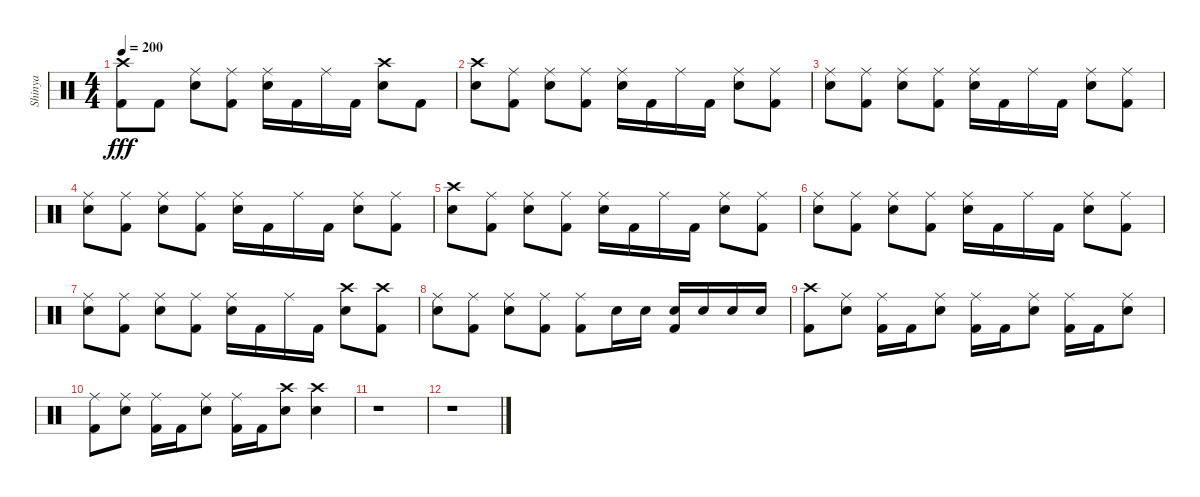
\track ("Shinya" "Shinya") {instrument percussion}
\staff {score}
\articulation defaults
\ts (4 4)
\tempo 200
\clef neutral
\ks c
("Kick (hit) 2" "Crash high (hit)").8{dy fff} "Kick (hit) 2".8 ("Snare (hit) 2" "Ride (middle)").8 ("Ride (middle)" "Kick (hit) 2").8 ("Snare (hit) 2" "Ride (middle)").16 "Kick (hit) 2".16 "Ride (middle)".16 "Kick (hit) 2".16 ("Snare (hit) 2" "Crash high (hit)").8 "Kick (hit) 2".8 |
("Snare (hit) 2" "Crash high (hit)").8 ("Ride (middle)" "Kick (hit) 2").8 ("Snare (hit) 2" "Ride (middle)").8 ("Ride (middle)" "Kick (hit) 2").8 ("Snare (hit) 2" "Ride (middle)").16 "Kick (hit) 2".16 "Ride (middle)".16 "Kick (hit) 2".16 ("Snare (hit) 2" "Ride (middle)").8 ("Ride (middle)" "Kick (hit) 2").8 |
("Snare (hit) 2" "Ride (middle)").8 ("Ride (middle)" "Kick (hit) 2").8 ("Snare (hit) 2" "Ride (middle)").8 ("Ride (middle)" "Kick (hit) 2").8 ("Snare (hit) 2" "Ride (middle)").16 "Kick (hit) 2".16 "Ride (middle)".16 "Kick (hit) 2".16 ("Snare (hit) 2" "Ride (middle)").8 ("Ride (middle)" "Kick (hit) 2").8 |
("Snare (hit) 2" "Ride (middle)").8 ("Ride (middle)" "Kick (hit) 2").8 ("Snare (hit) 2" "Ride (middle)").8 ("Ride (middle)" "Kick (hit) 2").8 ("Snare (hit) 2" "Ride (middle)").16 "Kick (hit) 2".16 "Ride (middle)".16 "Kick (hit) 2".16 ("Snare (hit) 2" "Ride (middle)").8 ("Ride (middle)" "Kick (hit) 2").8 |
("Snare (hit) 2" "Crash high (hit)").8 ("Ride (middle)" "Kick (hit) 2").8 ("Snare (hit) 2" "Ride (middle)").8 ("Ride (middle)" "Kick (hit) 2").8 ("Snare (hit) 2" "Ride (middle)").16 "Kick (hit) 2".16 "Ride (middle)".16 "Kick (hit) 2".16 ("Snare (hit) 2" "Ride (middle)").8 ("Ride (middle)" "Kick (hit) 2").8 |
("Snare (hit) 2" "Ride (middle)").8 ("Ride (middle)" "Kick (hit) 2").8 ("Snare (hit) 2" "Ride (middle)").8 ("Ride (middle)" "Kick (hit) 2").8 ("Snare (hit) 2" "Ride (middle)").16 "Kick (hit) 2".16 "Ride (middle)".16 "Kick (hit) 2".16 ("Snare (hit) 2" "Ride (middle)").8 ("Ride (middle)" "Kick (hit) 2").8 |
("Snare (hit) 2" "Ride (middle)").8 ("Ride (middle)" "Kick (hit) 2").8 ("Snare (hit) 2" "Ride (middle)").8 ("Ride (middle)" "Kick (hit) 2").8 ("Snare (hit) 2" "Ride (middle)").16 "Kick (hit) 2".16 "Ride (middle)".16 "Kick (hit) 2".16 ("Snare (hit) 2" "Crash high (hit)").8 ("Crash high (hit)" "Kick (hit) 2").8 |
("Snare (hit) 2" "Ride (middle)").8 ("Ride (middle)" "Kick (hit) 2").8 ("Snare (hit) 2" "Ride (middle)").8 ("Ride (middle)" "Kick (hit) 2").8 ("Ride (middle)" "Kick (hit) 2").8 "Snare (hit) 2".16 "Snare (hit) 2".16 ("Snare (hit) 2" "Kick (hit) 2").16 "Snare (hit) 2".16 "Snare (hit) 2".16 "Snare (hit) 2".16 |
("Crash high (hit)" "Kick (hit) 2").8 ("Snare (hit) 2" "Ride (middle)").8 ("Ride (middle)" "Kick (hit) 2").16 "Kick (hit) 2".16 ("Snare (hit) 2" "Ride (middle)").8 ("Ride (middle)" "Kick (hit) 2").16 "Kick (hit) 2".16 ("Snare (hit) 2" "Ride (middle)").8 ("Ride (middle)" "Kick (hit) 2").16 "Kick (hit) 2".16 ("Snare (hit) 2" "Ride (middle)").8 |
("Ride (middle)" "Kick (hit) 2").8 ("Snare (hit) 2" "Ride (middle)").8 ("Ride (middle)" "Kick (hit) 2").16 "Kick (hit) 2".16 ("Snare (hit) 2" "Ride (middle)").8 ("Ride (middle)" "Kick (hit) 2").16 "Kick (hit) 2".16 ("Snare (hit) 2" "Crash high (hit)").8 ("Crash high (hit)" "Snare (hit) 2").4 |
r.1 |
r.1
